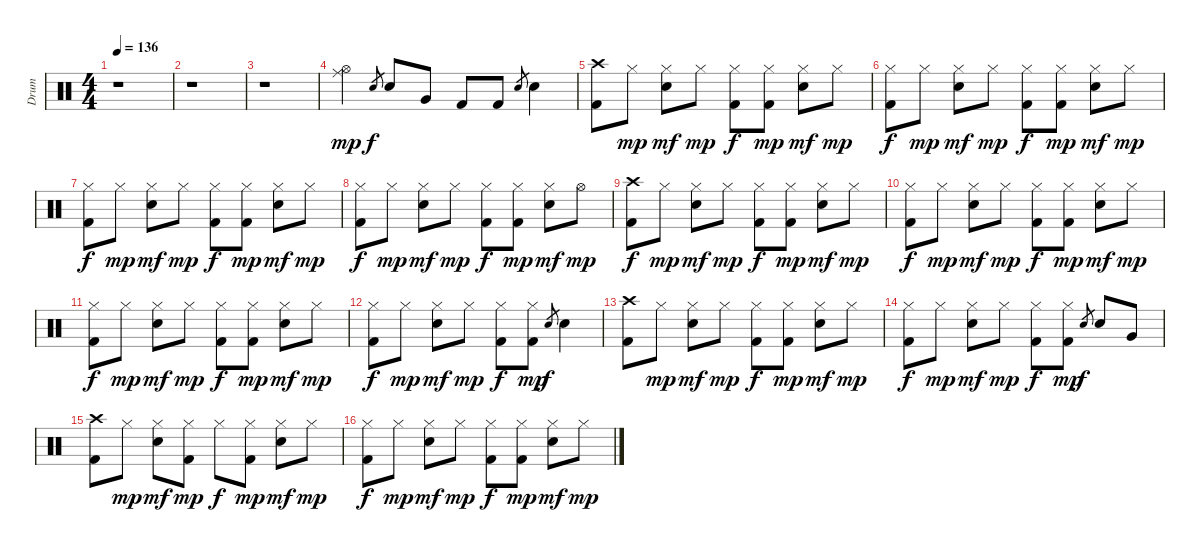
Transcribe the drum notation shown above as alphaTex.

\track ("Drum" "Drum") {instrument percussion}
\staff {score}
\articulation defaults
\ts (4 4)
\tempo 136
\clef neutral
\ks c
r.1{dy mp} |
r.1 |
r.1 |
("Ride (middle)" "Hi-Hat (open)").4 "Snare (hit) 2".8{gr dy f} "Snare (hit) 2".8 "Very Low Tom (hit)".8 "Kick (hit) 2".8 "Kick (hit) 2".8 "Snare (hit) 2".8{gr} "Snare (hit) 2".4 |
("Crash high (hit)" "Kick (hit) 2").8 "Hi-Hat (closed)".8{dy mp} ("Hi-Hat (closed)" "Snare (hit) 2").8{dy mf} "Hi-Hat (closed)".8{dy mp} ("Hi-Hat (closed)" "Kick (hit) 2").8{dy f} ("Hi-Hat (closed)" "Kick (hit) 2").8{dy mp} ("Hi-Hat (closed)" "Snare (hit) 2").8{dy mf} "Hi-Hat (closed)".8{dy mp} |
("Hi-Hat (closed)" "Kick (hit) 2").8{dy f} "Hi-Hat (closed)".8{dy mp} ("Hi-Hat (closed)" "Snare (hit) 2").8{dy mf} "Hi-Hat (closed)".8{dy mp} ("Hi-Hat (closed)" "Kick (hit) 2").8{dy f} ("Hi-Hat (closed)" "Kick (hit) 2").8{dy mp} ("Hi-Hat (closed)" "Snare (hit) 2").8{dy mf} "Hi-Hat (closed)".8{dy mp} |
("Hi-Hat (closed)" "Kick (hit) 2").8{dy f} "Hi-Hat (closed)".8{dy mp} ("Hi-Hat (closed)" "Snare (hit) 2").8{dy mf} "Hi-Hat (closed)".8{dy mp} ("Hi-Hat (closed)" "Kick (hit) 2").8{dy f} ("Hi-Hat (closed)" "Kick (hit) 2").8{dy mp} ("Hi-Hat (closed)" "Snare (hit) 2").8{dy mf} "Hi-Hat (closed)".8{dy mp} |
("Hi-Hat (closed)" "Kick (hit) 2").8{dy f} "Hi-Hat (closed)".8{dy mp} ("Hi-Hat (closed)" "Snare (hit) 2").8{dy mf} "Hi-Hat (closed)".8{dy mp} ("Hi-Hat (closed)" "Kick (hit) 2").8{dy f} ("Hi-Hat (closed)" "Kick (hit) 2").8{dy mp} ("Hi-Hat (closed)" "Snare (hit) 2").8{dy mf} "Hi-Hat (open)".8{dy mp} |
("Crash high (hit)" "Kick (hit) 2").8{dy f} "Hi-Hat (closed)".8{dy mp} ("Hi-Hat (closed)" "Snare (hit) 2").8{dy mf} "Hi-Hat (closed)".8{dy mp} ("Hi-Hat (closed)" "Kick (hit) 2").8{dy f} ("Hi-Hat (closed)" "Kick (hit) 2").8{dy mp} ("Hi-Hat (closed)" "Snare (hit) 2").8{dy mf} "Hi-Hat (closed)".8{dy mp} |
("Hi-Hat (closed)" "Kick (hit) 2").8{dy f} "Hi-Hat (closed)".8{dy mp} ("Hi-Hat (closed)" "Snare (hit) 2").8{dy mf} "Hi-Hat (closed)".8{dy mp} ("Hi-Hat (closed)" "Kick (hit) 2").8{dy f} ("Hi-Hat (closed)" "Kick (hit) 2").8{dy mp} ("Hi-Hat (closed)" "Snare (hit) 2").8{dy mf} "Hi-Hat (closed)".8{dy mp} |
("Hi-Hat (closed)" "Kick (hit) 2").8{dy f} "Hi-Hat (closed)".8{dy mp} ("Hi-Hat (closed)" "Snare (hit) 2").8{dy mf} "Hi-Hat (closed)".8{dy mp} ("Hi-Hat (closed)" "Kick (hit) 2").8{dy f} ("Hi-Hat (closed)" "Kick (hit) 2").8{dy mp} ("Hi-Hat (closed)" "Snare (hit) 2").8{dy mf} "Hi-Hat (closed)".8{dy mp} |
("Hi-Hat (closed)" "Kick (hit) 2").8{dy f} "Hi-Hat (closed)".8{dy mp} ("Hi-Hat (closed)" "Snare (hit) 2").8{dy mf} "Hi-Hat (closed)".8{dy mp} ("Hi-Hat (closed)" "Kick (hit) 2").8{dy f} ("Hi-Hat (closed)" "Kick (hit) 2").8{dy mp} "Snare (hit) 2".8{gr dy f} "Snare (hit) 2".4 |
("Crash high (hit)" "Kick (hit) 2").8 "Hi-Hat (closed)".8{dy mp} ("Hi-Hat (closed)" "Snare (hit) 2").8{dy mf} "Hi-Hat (closed)".8{dy mp} ("Hi-Hat (closed)" "Kick (hit) 2").8{dy f} ("Hi-Hat (closed)" "Kick (hit) 2").8{dy mp} ("Hi-Hat (closed)" "Snare (hit) 2").8{dy mf} "Hi-Hat (closed)".8{dy mp} |
("Hi-Hat (closed)" "Kick (hit) 2").8{dy f} "Hi-Hat (closed)".8{dy mp} ("Hi-Hat (closed)" "Snare (hit) 2").8{dy mf} "Hi-Hat (closed)".8{dy mp} ("Hi-Hat (closed)" "Kick (hit) 2").8{dy f} ("Hi-Hat (closed)" "Kick (hit) 2").8{dy mp} "Snare (hit) 2".8{gr dy f} "Snare (hit) 2".8 "Very Low Tom (hit)".8 |
("Crash high (hit)" "Kick (hit) 2").8 "Hi-Hat (closed)".8{dy mp} ("Hi-Hat (closed)" "Snare (hit) 2").8{dy mf} ("Hi-Hat (closed)" "Kick (hit) 2").8{dy mp} "Hi-Hat (closed)".8{dy f} ("Hi-Hat (closed)" "Kick (hit) 2").8{dy mp} ("Hi-Hat (closed)" "Snare (hit) 2").8{dy mf} "Hi-Hat (closed)".8{dy mp} |
("Hi-Hat (closed)" "Kick (hit) 2").8{dy f} "Hi-Hat (closed)".8{dy mp} ("Hi-Hat (closed)" "Snare (hit) 2").8{dy mf} "Hi-Hat (closed)".8{dy mp} ("Hi-Hat (closed)" "Kick (hit) 2").8{dy f} ("Hi-Hat (closed)" "Kick (hit) 2").8{dy mp} ("Hi-Hat (closed)" "Snare (hit) 2").8{dy mf} "Hi-Hat (closed)".8{dy mp}
